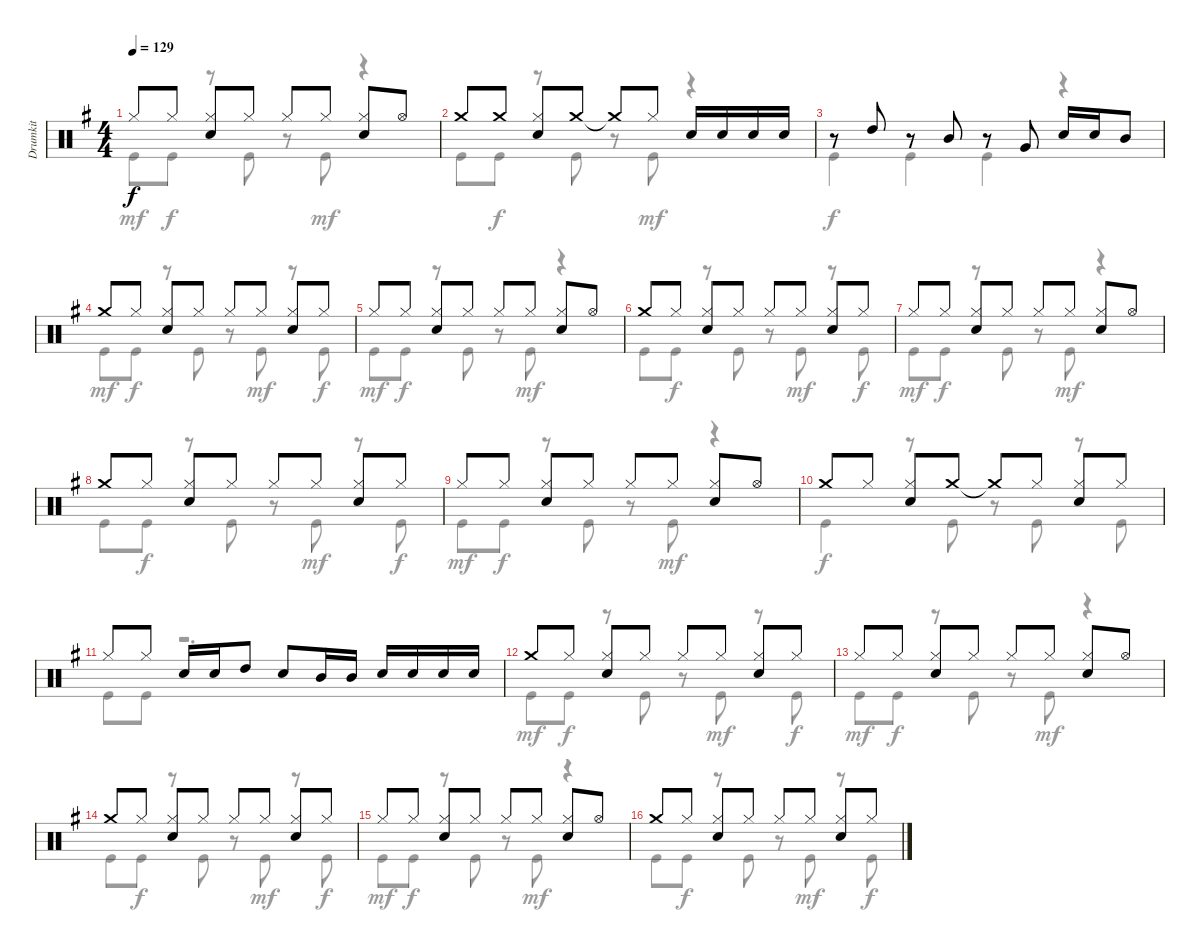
\track ("Drumkit" "Drumkit") {instrument percussion}
\staff {score}
\articulation defaults
\voice
\ts (4 4)
\tempo 129
\clef neutral
\ks g "Hi-Hat (closed)".8{dy f} "Hi-Hat (closed)".8
("Hi-Hat (closed)" "Snare (hit) 2").8 "Hi-Hat (closed)".8 "Hi-Hat (closed)".8 "Hi-Hat (closed)".8 ("Hi-Hat (closed)" "Snare (hit) 2").8 "Hi-Hat (open)".8 |
"Crash medium (hit)".8 "Crash medium (hit)".8 ("Hi-Hat (closed)" "Snare (hit) 2").8 "Crash medium (hit)".8 "Crash medium (hit)"{t}.8 "Hi-Hat (closed)".8 "Snare (hit) 2".16 "Snare (hit) 2".16 "Snare (hit) 2".16 "Snare (hit) 2".16 |
r.8 "High Tom (hit)".8 r.8 "Mid Tom (hit)".8 r.8 "Very Low Tom (hit)".8 "Snare (hit) 2".16 "Snare (hit) 2".16 "Mid Tom (hit)".8 |
"Crash medium (hit)".8 "Hi-Hat (closed)".8 ("Hi-Hat (closed)" "Snare (hit) 2").8 "Hi-Hat (closed)".8 "Hi-Hat (closed)".8 "Hi-Hat (closed)".8 ("Hi-Hat (closed)" "Snare (hit) 2").8 "Hi-Hat (closed)".8 |
"Hi-Hat (closed)".8 "Hi-Hat (closed)".8 ("Hi-Hat (closed)" "Snare (hit) 2").8 "Hi-Hat (closed)".8 "Hi-Hat (closed)".8 "Hi-Hat (closed)".8 ("Hi-Hat (closed)" "Snare (hit) 2").8 "Hi-Hat (open)".8 |
"Crash medium (hit)".8 "Hi-Hat (closed)".8 ("Hi-Hat (closed)" "Snare (hit) 2").8 "Hi-Hat (closed)".8 "Hi-Hat (closed)".8 "Hi-Hat (closed)".8 ("Hi-Hat (closed)" "Snare (hit) 2").8 "Hi-Hat (closed)".8 |
"Hi-Hat (closed)".8 "Hi-Hat (closed)".8 ("Hi-Hat (closed)" "Snare (hit) 2").8 "Hi-Hat (closed)".8 "Hi-Hat (closed)".8 "Hi-Hat (closed)".8 ("Hi-Hat (closed)" "Snare (hit) 2").8 "Hi-Hat (open)".8 |
"Crash medium (hit)".8 "Hi-Hat (closed)".8 ("Hi-Hat (closed)" "Snare (hit) 2").8 "Hi-Hat (closed)".8 "Hi-Hat (closed)".8 "Hi-Hat (closed)".8 ("Hi-Hat (closed)" "Snare (hit) 2").8 "Hi-Hat (closed)".8 |
"Hi-Hat (closed)".8 "Hi-Hat (closed)".8 ("Hi-Hat (closed)" "Snare (hit) 2").8 "Hi-Hat (closed)".8 "Hi-Hat (closed)".8 "Hi-Hat (closed)".8 ("Hi-Hat (closed)" "Snare (hit) 2").8 "Hi-Hat (open)".8 |
"Crash medium (hit)".8 "Hi-Hat (closed)".8 ("Hi-Hat (closed)" "Snare (hit) 2").8 "Crash medium (hit)".8 "Crash medium (hit)"{t}.8 "Hi-Hat (closed)".8 ("Hi-Hat (closed)" "Snare (hit) 2").8 "Hi-Hat (closed)".8 |
"Hi-Hat (closed)".8 "Hi-Hat (closed)".8 "Snare (hit) 2".16 "Snare (hit) 2".16 "High Tom (hit)".8 "Snare (hit) 2".8 "Mid Tom (hit)".16 "Mid Tom (hit)".16 "Snare (hit) 2".16 "Snare (hit) 2".16 "Snare (hit) 2".16 "Snare (hit) 2".16 |
"Crash medium (hit)".8 "Hi-Hat (closed)".8 ("Hi-Hat (closed)" "Snare (hit) 2").8 "Hi-Hat (closed)".8 "Hi-Hat (closed)".8 "Hi-Hat (closed)".8 ("Hi-Hat (closed)" "Snare (hit) 2").8 "Hi-Hat (closed)".8 |
"Hi-Hat (closed)".8 "Hi-Hat (closed)".8 ("Hi-Hat (closed)" "Snare (hit) 2").8 "Hi-Hat (closed)".8 "Hi-Hat (closed)".8 "Hi-Hat (closed)".8 ("Hi-Hat (closed)" "Snare (hit) 2").8 "Hi-Hat (open)".8 |
"Crash medium (hit)".8 "Hi-Hat (closed)".8 ("Hi-Hat (closed)" "Snare (hit) 2").8 "Hi-Hat (closed)".8 "Hi-Hat (closed)".8 "Hi-Hat (closed)".8 ("Hi-Hat (closed)" "Snare (hit) 2").8 "Hi-Hat (closed)".8 |
"Hi-Hat (closed)".8 "Hi-Hat (closed)".8 ("Hi-Hat (closed)" "Snare (hit) 2").8 "Hi-Hat (closed)".8 "Hi-Hat (closed)".8 "Hi-Hat (closed)".8 ("Hi-Hat (closed)" "Snare (hit) 2").8 "Hi-Hat (open)".8 |
"Crash medium (hit)".8 "Hi-Hat (closed)".8 ("Hi-Hat (closed)" "Snare (hit) 2").8 "Hi-Hat (closed)".8 "Hi-Hat (closed)".8 "Hi-Hat (closed)".8 ("Hi-Hat (closed)" "Snare (hit) 2").8 "Hi-Hat (closed)".8
\voice
\clef neutral
\ottava regular
\simile none
\ks g "Kick (hit)".8{dy mf} "Kick (hit)".8{dy f}
r.8 "Kick (hit)".8 r.8 "Kick (hit)".8{dy mf} r.4 |
"Kick (hit)".8 "Kick (hit)".8{dy f} r.8 "Kick (hit)".8 r.8 "Kick (hit)".8{dy mf} r.4 |
"Kick (hit)".4{dy f} "Kick (hit)".4 "Kick (hit)".4 r.4 |
"Kick (hit)".8{dy mf} "Kick (hit)".8{dy f} r.8 "Kick (hit)".8 r.8 "Kick (hit)".8{dy mf} r.8 "Kick (hit)".8{dy f} |
"Kick (hit)".8{dy mf} "Kick (hit)".8{dy f} r.8 "Kick (hit)".8 r.8 "Kick (hit)".8{dy mf} r.4 |
"Kick (hit)".8 "Kick (hit)".8{dy f} r.8 "Kick (hit)".8 r.8 "Kick (hit)".8{dy mf} r.8 "Kick (hit)".8{dy f} |
"Kick (hit)".8{dy mf} "Kick (hit)".8{dy f} r.8 "Kick (hit)".8 r.8 "Kick (hit)".8{dy mf} r.4 |
"Kick (hit)".8 "Kick (hit)".8{dy f} r.8 "Kick (hit)".8 r.8 "Kick (hit)".8{dy mf} r.8 "Kick (hit)".8{dy f} |
"Kick (hit)".8{dy mf} "Kick (hit)".8{dy f} r.8 "Kick (hit)".8 r.8 "Kick (hit)".8{dy mf} r.4 |
"Kick (hit)".4{dy f} r.8 "Kick (hit)".8 r.8 "Kick (hit)".8 r.8 "Kick (hit)".8 |
"Kick (hit)".8 "Kick (hit)".8 r.2{d} |
"Kick (hit)".8{dy mf} "Kick (hit)".8{dy f} r.8 "Kick (hit)".8 r.8 "Kick (hit)".8{dy mf} r.8 "Kick (hit)".8{dy f} |
"Kick (hit)".8{dy mf} "Kick (hit)".8{dy f} r.8 "Kick (hit)".8 r.8 "Kick (hit)".8{dy mf} r.4 |
"Kick (hit)".8 "Kick (hit)".8{dy f} r.8 "Kick (hit)".8 r.8 "Kick (hit)".8{dy mf} r.8 "Kick (hit)".8{dy f} |
"Kick (hit)".8{dy mf} "Kick (hit)".8{dy f} r.8 "Kick (hit)".8 r.8 "Kick (hit)".8{dy mf} r.4 |
"Kick (hit)".8 "Kick (hit)".8{dy f} r.8 "Kick (hit)".8 r.8 "Kick (hit)".8{dy mf} r.8 "Kick (hit)".8{dy f}
